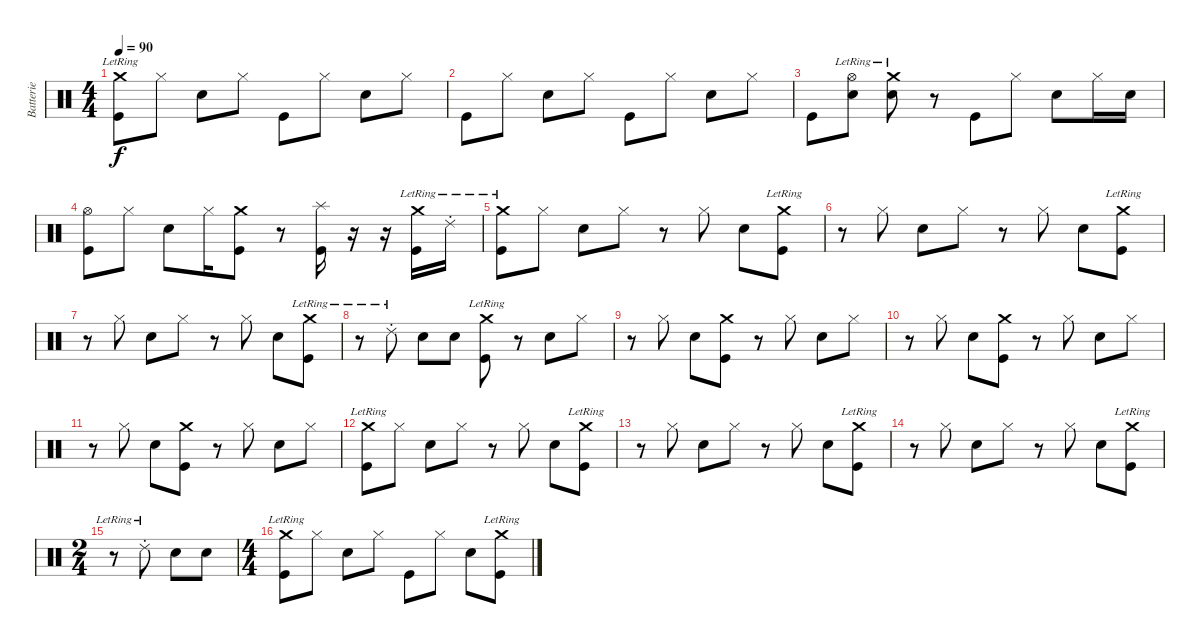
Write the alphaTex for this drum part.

\track ("Batterie" "Batterie") {instrument percussion}
\staff {score}
\articulation defaults
\ts (4 4)
\tempo 90
\clef neutral
\ks c
("Crash medium (hit)"{lr} "Kick (hit)").8{dy f} "Hi-Hat (closed)".8 "Metronome (bell)".8 "Hi-Hat (closed)".8 "Kick (hit)".8 "Hi-Hat (closed)".8 "Metronome (bell)".8 "Hi-Hat (closed)".8 |
"Kick (hit)".8 "Hi-Hat (closed)".8 "Metronome (bell)".8 "Hi-Hat (closed)".8 "Kick (hit)".8 "Hi-Hat (closed)".8 "Metronome (bell)".8 "Hi-Hat (closed)".8 |
"Kick (hit)".8 ("Metronome (bell)" "Hi-Hat (open)"{lr}).8 ("Metronome (bell)" "Crash medium (hit)"{lr}).8 r.8 "Kick (hit)".8 "Hi-Hat (closed)".8 "Metronome (bell)".8 "Hi-Hat (closed)".16 "Metronome (bell)".16 |
("Hi-Hat (open)" "Kick (hit)").8 "Hi-Hat (closed)".8 "Metronome (bell)".8 "Hi-Hat (closed)".16 ("Crash medium (hit)" "Kick (hit)").8 r.8 ("Splash (hit)" "Kick (hit)").16 r.16 r.16 ("Crash medium (hit)"{lr} "Kick (hit)").16 "Ride (choke) 2"{lr}.16 |
("Crash medium (hit)"{lr} "Kick (hit)").8 "Hi-Hat (closed)".8 "Metronome (bell)".8 "Hi-Hat (closed)".8 r.8 "Hi-Hat (closed)".8 "Metronome (bell)".8 ("Crash medium (hit)"{lr} "Kick (hit)").8 |
r.8 "Hi-Hat (closed)".8 "Metronome (bell)".8 "Hi-Hat (closed)".8 r.8 "Hi-Hat (closed)".8 "Metronome (bell)".8 ("Crash medium (hit)"{lr} "Kick (hit)").8 |
r.8 "Hi-Hat (closed)".8 "Metronome (bell)".8 "Hi-Hat (closed)".8 r.8 "Hi-Hat (closed)".8 "Metronome (bell)".8 ("Crash medium (hit)"{lr} "Kick (hit)").8 |
r.8 "Ride (choke) 2"{lr}.8 "Metronome (bell)".8 "Metronome (bell)".8 ("Crash medium (hit)"{lr} "Kick (hit)").8 r.8 "Metronome (bell)".8 "Hi-Hat (closed)".8 |
r.8 "Hi-Hat (closed)".8 "Metronome (bell)".8 ("Crash medium (hit)" "Kick (hit)").8 r.8 "Hi-Hat (closed)".8 "Metronome (bell)".8 "Hi-Hat (closed)".8 |
r.8 "Hi-Hat (closed)".8 "Metronome (bell)".8 ("Crash medium (hit)" "Kick (hit)").8 r.8 "Hi-Hat (closed)".8 "Metronome (bell)".8 "Hi-Hat (closed)".8 |
r.8 "Hi-Hat (closed)".8 "Metronome (bell)".8 ("Crash medium (hit)" "Kick (hit)").8 r.8 "Hi-Hat (closed)".8 "Metronome (bell)".8 "Hi-Hat (closed)".8 |
("Crash medium (hit)"{lr} "Kick (hit)").8 "Hi-Hat (closed)".8 "Metronome (bell)".8 "Hi-Hat (closed)".8 r.8 "Hi-Hat (closed)".8 "Metronome (bell)".8 ("Crash medium (hit)"{lr} "Kick (hit)").8 |
r.8 "Hi-Hat (closed)".8 "Metronome (bell)".8 "Hi-Hat (closed)".8 r.8 "Hi-Hat (closed)".8 "Metronome (bell)".8 ("Crash medium (hit)"{lr} "Kick (hit)").8 |
r.8 "Hi-Hat (closed)".8 "Metronome (bell)".8 "Hi-Hat (closed)".8 r.8 "Hi-Hat (closed)".8 "Metronome (bell)".8 ("Crash medium (hit)"{lr} "Kick (hit)").8 |
\ts (2 4)
r.8 "Ride (choke) 2"{lr}.8 "Metronome (bell)".8 "Metronome (bell)".8 |
\ts (4 4)
("Crash medium (hit)"{lr} "Kick (hit)").8 "Hi-Hat (closed)".8 "Metronome (bell)".8 "Hi-Hat (closed)".8 "Kick (hit)".8 "Hi-Hat (closed)".8 "Metronome (bell)".8 ("Crash medium (hit)"{lr} "Kick (hit)").8
